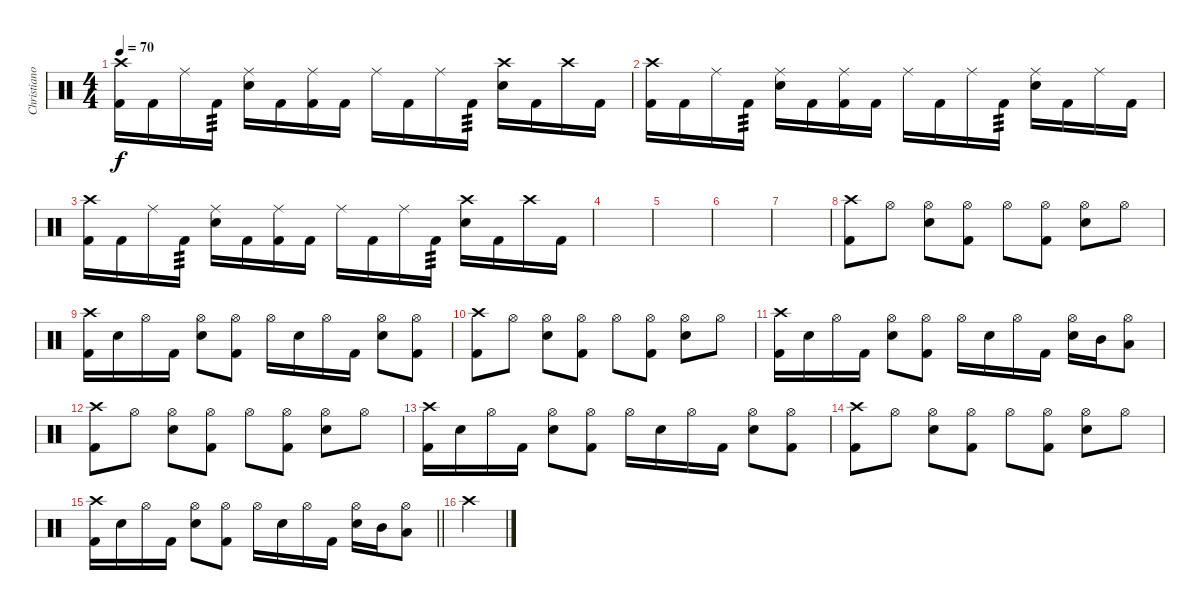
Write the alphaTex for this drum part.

\track ("Christiano Mozzati" "Christiano") {instrument percussion}
\staff {score}
\articulation defaults
\ts (4 4)
\tempo 70
\clef neutral
\ks c
("Crash high (hit)" "Kick (hit) 2").16{dy f} "Kick (hit) 2".16 "Ride (middle)".16 "Kick (hit) 2".16{tp 3} ("Ride (middle)" "Snare (hit) 2").16 "Kick (hit) 2".16 ("Ride (middle)" "Kick (hit) 2").16 "Kick (hit) 2".16 "Ride (middle)".16 "Kick (hit) 2".16 "Ride (middle)".16 "Kick (hit) 2".16{tp 3} ("Crash high (hit)" "Snare (hit) 2").16 "Kick (hit) 2".16 "Crash high (hit)".16 "Kick (hit) 2".16 |
("Crash high (hit)" "Kick (hit) 2").16 "Kick (hit) 2".16 "Ride (middle)".16 "Kick (hit) 2".16{tp 3} ("Ride (middle)" "Snare (hit) 2").16 "Kick (hit) 2".16 ("Ride (middle)" "Kick (hit) 2").16 "Kick (hit) 2".16 "Ride (middle)".16 "Kick (hit) 2".16 "Ride (middle)".16 "Kick (hit) 2".16{tp 3} ("Ride (middle)" "Snare (hit) 2").16 "Kick (hit) 2".16 "Ride (middle)".16 "Kick (hit) 2".16 |
("Crash high (hit)" "Kick (hit) 2").16 "Kick (hit) 2".16 "Ride (middle)".16 "Kick (hit) 2".16{tp 3} ("Ride (middle)" "Snare (hit) 2").16 "Kick (hit) 2".16 ("Ride (middle)" "Kick (hit) 2").16 "Kick (hit) 2".16 "Ride (middle)".16 "Kick (hit) 2".16 "Ride (middle)".16 "Kick (hit) 2".16{tp 3} ("Crash high (hit)" "Snare (hit) 2").16 "Kick (hit) 2".16 "Crash high (hit)".16 "Kick (hit) 2".16 |
|
|
|
|
("Crash high (hit)" "Kick (hit) 2").8 "Hi-Hat (open)".8 ("Hi-Hat (open)" "Snare (hit) 2").8 ("Hi-Hat (open)" "Kick (hit) 2").8 "Hi-Hat (open)".8 ("Hi-Hat (open)" "Kick (hit) 2").8 ("Hi-Hat (open)" "Snare (hit) 2").8 "Hi-Hat (open)".8 |
("Crash high (hit)" "Kick (hit) 2").16 "Snare (hit) 2".16 "Hi-Hat (open)".16 "Kick (hit) 2".16 ("Hi-Hat (open)" "Snare (hit) 2").8 ("Hi-Hat (open)" "Kick (hit) 2").8 "Hi-Hat (open)".16 "Snare (hit) 2".16 "Hi-Hat (open)".16 "Kick (hit) 2".16 ("Hi-Hat (open)" "Snare (hit) 2").8 ("Hi-Hat (open)" "Kick (hit) 2").8 |
("Crash high (hit)" "Kick (hit) 2").8 "Hi-Hat (open)".8 ("Hi-Hat (open)" "Snare (hit) 2").8 ("Hi-Hat (open)" "Kick (hit) 2").8 "Hi-Hat (open)".8 ("Hi-Hat (open)" "Kick (hit) 2").8 ("Hi-Hat (open)" "Snare (hit) 2").8 "Hi-Hat (open)".8 |
("Crash high (hit)" "Kick (hit) 2").16 "Snare (hit) 2".16 "Hi-Hat (open)".16 "Kick (hit) 2".16 ("Hi-Hat (open)" "Snare (hit) 2").8 ("Hi-Hat (open)" "Kick (hit) 2").8 "Hi-Hat (open)".16 "Snare (hit) 2".16 "Hi-Hat (open)".16 "Kick (hit) 2".16 ("Hi-Hat (open)" "Snare (hit) 2").16 "Mid Tom (hit)".16 ("Hi-Hat (open)" "Low Tom (hit)").8 |
("Crash high (hit)" "Kick (hit) 2").8 "Hi-Hat (open)".8 ("Hi-Hat (open)" "Snare (hit) 2").8 ("Hi-Hat (open)" "Kick (hit) 2").8 "Hi-Hat (open)".8 ("Hi-Hat (open)" "Kick (hit) 2").8 ("Hi-Hat (open)" "Snare (hit) 2").8 "Hi-Hat (open)".8 |
("Crash high (hit)" "Kick (hit) 2").16 "Snare (hit) 2".16 "Hi-Hat (open)".16 "Kick (hit) 2".16 ("Hi-Hat (open)" "Snare (hit) 2").8 ("Hi-Hat (open)" "Kick (hit) 2").8 "Hi-Hat (open)".16 "Snare (hit) 2".16 "Hi-Hat (open)".16 "Kick (hit) 2".16 ("Hi-Hat (open)" "Snare (hit) 2").8 ("Hi-Hat (open)" "Kick (hit) 2").8 |
("Crash high (hit)" "Kick (hit) 2").8 "Hi-Hat (open)".8 ("Hi-Hat (open)" "Snare (hit) 2").8 ("Hi-Hat (open)" "Kick (hit) 2").8 "Hi-Hat (open)".8 ("Hi-Hat (open)" "Kick (hit) 2").8 ("Hi-Hat (open)" "Snare (hit) 2").8 "Hi-Hat (open)".8 |
\barLineRight lightlight
("Crash high (hit)" "Kick (hit) 2").16 "Snare (hit) 2".16 "Hi-Hat (open)".16 "Kick (hit) 2".16 ("Hi-Hat (open)" "Snare (hit) 2").8 ("Hi-Hat (open)" "Kick (hit) 2").8 "Hi-Hat (open)".16 "Snare (hit) 2".16 "Hi-Hat (open)".16 "Kick (hit) 2".16 ("Hi-Hat (open)" "Snare (hit) 2").16 "Mid Tom (hit)".16 ("Hi-Hat (open)" "Low Tom (hit)").8 |
"Crash high (hit)".4
